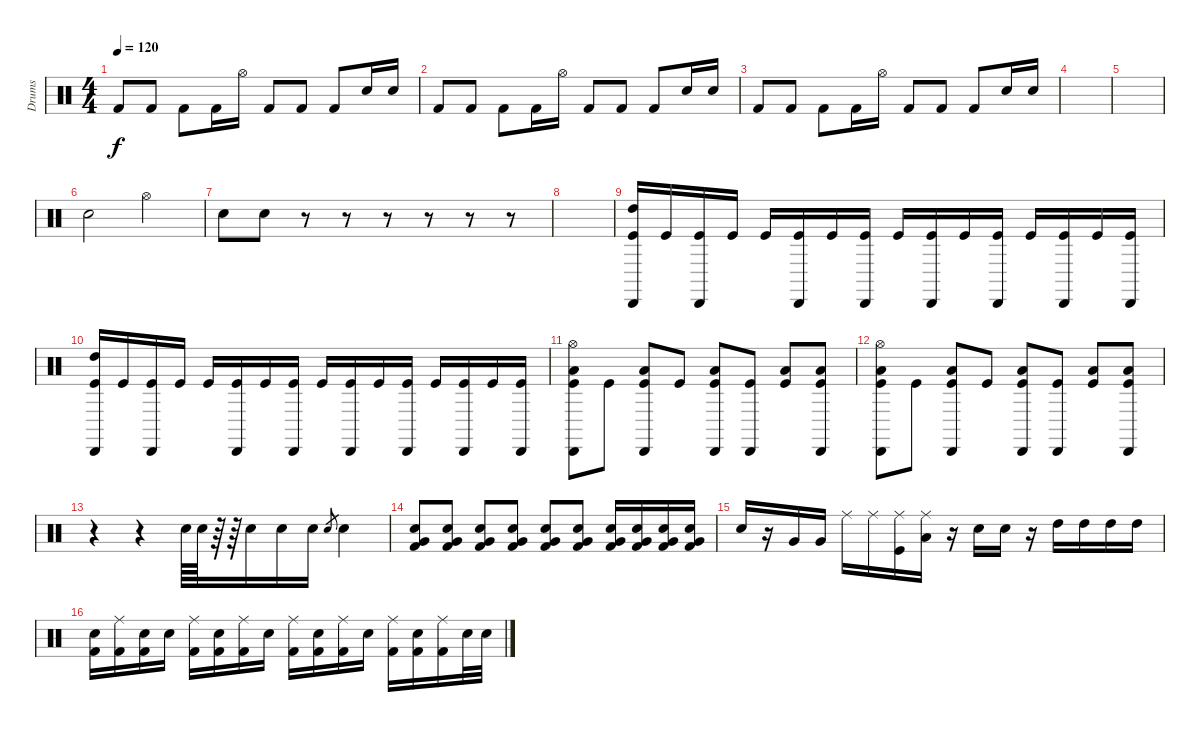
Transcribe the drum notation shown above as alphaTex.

\track ("Drums" "Drums") {instrument percussion}
\staff {score}
\articulation defaults
\ts (4 4)
\tempo 120
\clef neutral
\ks c "Kick (hit) 2".8{dy f} "Kick (hit) 2".8 "Kick (hit) 2".8 "Kick (hit) 2".16 "Hi-Hat (open)".16 "Kick (hit) 2".8 "Kick (hit) 2".8 "Kick (hit) 2".8 "Electric Snare (hit)".16 "Electric Snare (hit)".16
|
"Kick (hit) 2".8 "Kick (hit) 2".8 "Kick (hit) 2".8 "Kick (hit) 2".16 "Hi-Hat (open)".16 "Kick (hit) 2".8 "Kick (hit) 2".8 "Kick (hit) 2".8 "Electric Snare (hit)".16 "Electric Snare (hit)".16 |
"Kick (hit) 2".8 "Kick (hit) 2".8 "Kick (hit) 2".8 "Kick (hit) 2".16 "Hi-Hat (open)".16 "Kick (hit) 2".8 "Kick (hit) 2".8 "Kick (hit) 2".8 "Electric Snare (hit)".16 "Electric Snare (hit)".16 |
|
|
"Snare (hit) 2".2 "Hi-Hat (open)".2 |
"Electric Snare (hit)".8 "Electric Snare (hit)".8 r.8 r.8 r.8 r.8 r.8 r.8 |
|
("Cabasa (hit)" "High Tom (hit)" "Kick (hit)").16 "Kick (hit)".16 ("Cabasa (hit)" "Kick (hit)").16 "Kick (hit)".16 "Kick (hit)".16 ("Cabasa (hit)" "Kick (hit)").16 "Kick (hit)".16 ("Cabasa (hit)" "Kick (hit)").16 "Kick (hit)".16 ("Cabasa (hit)" "Kick (hit)").16 "Kick (hit)".16 ("Cabasa (hit)" "Kick (hit)").16 "Kick (hit)".16 ("Cabasa (hit)" "Kick (hit)").16 "Kick (hit)".16 ("Cabasa (hit)" "Kick (hit)").16 |
("Cabasa (hit)" "High Tom (hit)" "Kick (hit)").16 "Kick (hit)".16 ("Cabasa (hit)" "Kick (hit)").16 "Kick (hit)".16 "Kick (hit)".16 ("Cabasa (hit)" "Kick (hit)").16 "Kick (hit)".16 ("Cabasa (hit)" "Kick (hit)").16 "Kick (hit)".16 ("Cabasa (hit)" "Kick (hit)").16 "Kick (hit)".16 ("Cabasa (hit)" "Kick (hit)").16 "Kick (hit)".16 ("Cabasa (hit)" "Kick (hit)").16 "Kick (hit)".16 ("Cabasa (hit)" "Kick (hit)").16 |
("Hi-Hat (open)" "Cabasa (hit)" "Low Floor Tom (hit)" "Kick (hit)").8 "Kick (hit)".8 ("Cabasa (hit)" "Low Floor Tom (hit)" "Kick (hit)").8 "Kick (hit)".8 ("Cabasa (hit)" "Low Floor Tom (hit)" "Kick (hit)").8 ("Cabasa (hit)" "Kick (hit)").8 ("Low Floor Tom (hit)" "Kick (hit)").8 ("Cabasa (hit)" "Low Floor Tom (hit)" "Kick (hit)").8 |
("Hi-Hat (open)" "Cabasa (hit)" "Low Floor Tom (hit)" "Kick (hit)").8 "Kick (hit)".8 ("Cabasa (hit)" "Low Floor Tom (hit)" "Kick (hit)").8 "Kick (hit)".8 ("Cabasa (hit)" "Low Floor Tom (hit)" "Kick (hit)").8 ("Cabasa (hit)" "Kick (hit)").8 ("Low Floor Tom (hit)" "Kick (hit)").8 ("Cabasa (hit)" "Low Floor Tom (hit)" "Kick (hit)").8 |
r.4 r.4 "Snare (hit) 2".64 "Snare (hit) 2".64 r.64 r.64 "Electric Snare (hit)".16 "Snare (hit) 2".16 "Snare (hit) 2".16 "Snare (hit) 2".8{gr} "Snare (hit) 2".4 |
("Kick (hit) 2" "Very Low Tom (hit)" "Electric Snare (hit)").8 ("Kick (hit) 2" "Very Low Tom (hit)" "Electric Snare (hit)").8 ("Kick (hit) 2" "Very Low Tom (hit)" "Electric Snare (hit)").8 ("Kick (hit) 2" "Very Low Tom (hit)" "Electric Snare (hit)").8 ("Kick (hit) 2" "Very Low Tom (hit)" "Electric Snare (hit)").8 ("Kick (hit) 2" "Very Low Tom (hit)" "Electric Snare (hit)").8 ("Kick (hit) 2" "Very Low Tom (hit)" "Electric Snare (hit)").16 ("Kick (hit) 2" "Very Low Tom (hit)" "Electric Snare (hit)").16 ("Kick (hit) 2" "Very Low Tom (hit)" "Electric Snare (hit)").16 ("Kick (hit) 2" "Very Low Tom (hit)" "Electric Snare (hit)").16 |
"Snare (hit) 2".16 r.16 "Very Low Tom (hit)".16 "Very Low Tom (hit)".16 "Ride (middle)".16 "Ride (middle)".16 ("Kick (hit)" "Ride (middle)").16 ("Low Tom (hit)" "Ride (middle)").16 r.16 "Electric Snare (hit)".16 "Electric Snare (hit)".16 r.16 "High Tom (hit)".16 "High Tom (hit)".16 "High Tom (hit)".16 "High Tom (hit)".16 |
("Electric Snare (hit)" "Kick (hit) 2").16 ("Ride (middle)" "Kick (hit) 2").16 ("Electric Snare (hit)" "Kick (hit) 2").16 "Snare (hit) 2".16 ("Ride (middle)" "Kick (hit) 2").16 ("Electric Snare (hit)" "Kick (hit) 2").16 ("Ride (middle)" "Kick (hit) 2").16 "Snare (hit) 2".16 ("Ride (middle)" "Kick (hit) 2").16 ("Electric Snare (hit)" "Kick (hit) 2").16 ("Ride (middle)" "Kick (hit) 2").16 "Snare (hit) 2".16 ("Ride (middle)" "Kick (hit) 2").16 ("Electric Snare (hit)" "Kick (hit) 2").16 ("Ride (middle)" "Kick (hit) 2").16 "Electric Snare (hit)".32 "Electric Snare (hit)".32
